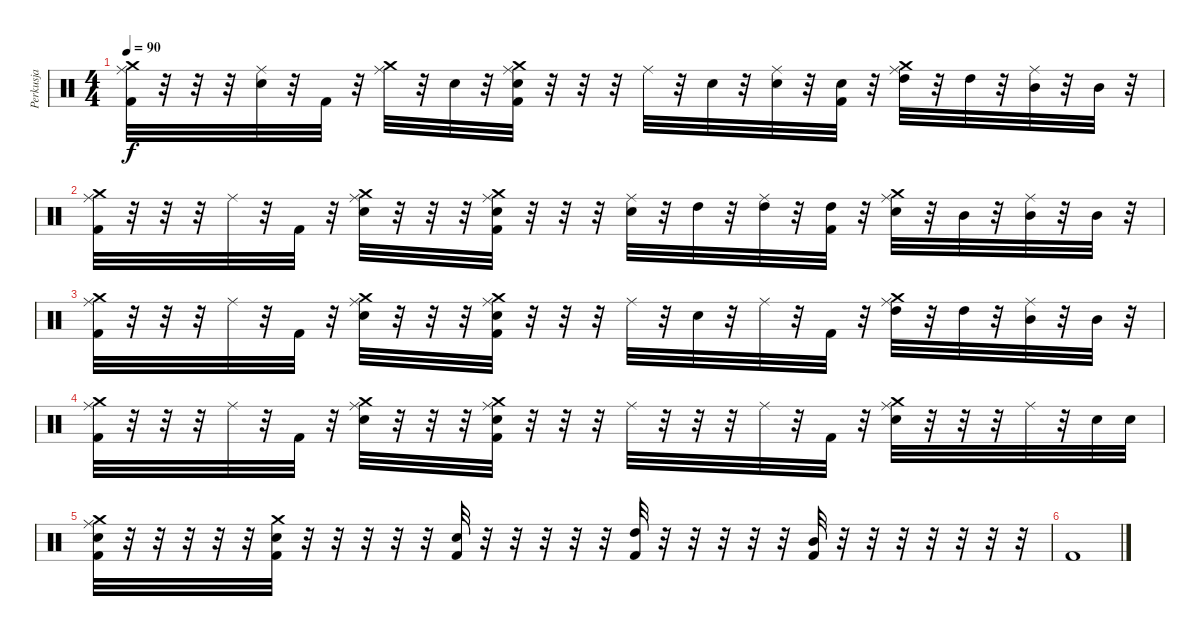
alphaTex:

\track ("Perkusja" "Perkusja") {instrument percussion}
\staff {score}
\articulation defaults
\ts (4 4)
\tempo 90
\clef neutral
\ks c
("Crash medium (hit)" "Ride (middle)" "Kick (hit) 2").32{dy f} r.32 r.32 r.32 ("Ride (middle)" "Electric Snare (hit)").32 r.32 "Kick (hit) 2".32 r.32 ("Crash medium (hit)" "Ride (middle)").32 r.32 "Electric Snare (hit)".32 r.32 ("Crash medium (hit)" "Ride (middle)" "Electric Snare (hit)" "Kick (hit) 2").32 r.32 r.32 r.32 "Ride (middle)".32 r.32 "Electric Snare (hit)".32 r.32 ("Ride (middle)" "Electric Snare (hit)").32 r.32 ("Electric Snare (hit)" "Kick (hit) 2").32 r.32 ("Crash medium (hit)" "Ride (middle)" "High Tom (hit)").32 r.32 "High Tom (hit)".32 r.32 ("Ride (middle)" "Mid Tom (hit)").32 r.32 "Mid Tom (hit)".32 r.32 |
("Crash medium (hit)" "Ride (middle)" "Kick (hit) 2").32 r.32 r.32 r.32 "Ride (middle)".32 r.32 "Kick (hit) 2".32 r.32 ("Crash medium (hit)" "Ride (middle)" "Electric Snare (hit)").32 r.32 r.32 r.32 ("Crash medium (hit)" "Ride (middle)" "Electric Snare (hit)" "Kick (hit) 2").32 r.32 r.32 r.32 ("Ride (middle)" "Electric Snare (hit)").32 r.32 "High Tom (hit)".32 r.32 ("Ride (middle)" "High Tom (hit)").32 r.32 ("High Tom (hit)" "Kick (hit) 2").32 r.32 ("Crash medium (hit)" "Ride (middle)" "Electric Snare (hit)").32 r.32 "Mid Tom (hit)".32 r.32 ("Ride (middle)" "Mid Tom (hit)").32 r.32 "Mid Tom (hit)".32 r.32 |
("Crash medium (hit)" "Ride (middle)" "Kick (hit) 2").32 r.32 r.32 r.32 "Ride (middle)".32 r.32 "Kick (hit) 2".32 r.32 ("Crash medium (hit)" "Ride (middle)" "Electric Snare (hit)").32 r.32 r.32 r.32 ("Crash medium (hit)" "Ride (middle)" "Electric Snare (hit)" "Kick (hit) 2").32 r.32 r.32 r.32 "Ride (middle)".32 r.32 "Electric Snare (hit)".32 r.32 "Ride (middle)".32 r.32 "Kick (hit) 2".32 r.32 ("Crash medium (hit)" "Ride (middle)" "High Tom (hit)").32 r.32 "High Tom (hit)".32 r.32 ("Ride (middle)" "Mid Tom (hit)").32 r.32 "Mid Tom (hit)".32 r.32 |
("Crash medium (hit)" "Ride (middle)" "Kick (hit) 2").32 r.32 r.32 r.32 "Ride (middle)".32 r.32 "Kick (hit) 2".32 r.32 ("Crash medium (hit)" "Ride (middle)" "Electric Snare (hit)").32 r.32 r.32 r.32 ("Crash medium (hit)" "Ride (middle)" "Electric Snare (hit)" "Kick (hit) 2").32 r.32 r.32 r.32 "Ride (middle)".32 r.32 r.32 r.32 "Ride (middle)".32 r.32 "Kick (hit) 2".32 r.32 ("Crash medium (hit)" "Ride (middle)" "Electric Snare (hit)").32 r.32 r.32 r.32 "Ride (middle)".32 r.32 "Snare (hit) 2".32 "Snare (hit) 2".32 |
("Crash medium (hit)" "Ride (middle)" "Electric Snare (hit)" "Kick (hit) 2").32 r.32 r.32 r.32 r.32 r.32 ("Crash medium (hit)" "Electric Snare (hit)" "Kick (hit) 2").32 r.32 r.32 r.32 r.32 r.32 ("Electric Snare (hit)" "Kick (hit) 2").32 r.32 r.32 r.32 r.32 r.32 ("High Tom (hit)" "Kick (hit) 2").32 r.32 r.32 r.32 r.32 r.32 ("Mid Tom (hit)" "Kick (hit) 2").32 r.32 r.32 r.32 r.32 r.32 r.32 r.32 |
"Kick (hit) 2".1
